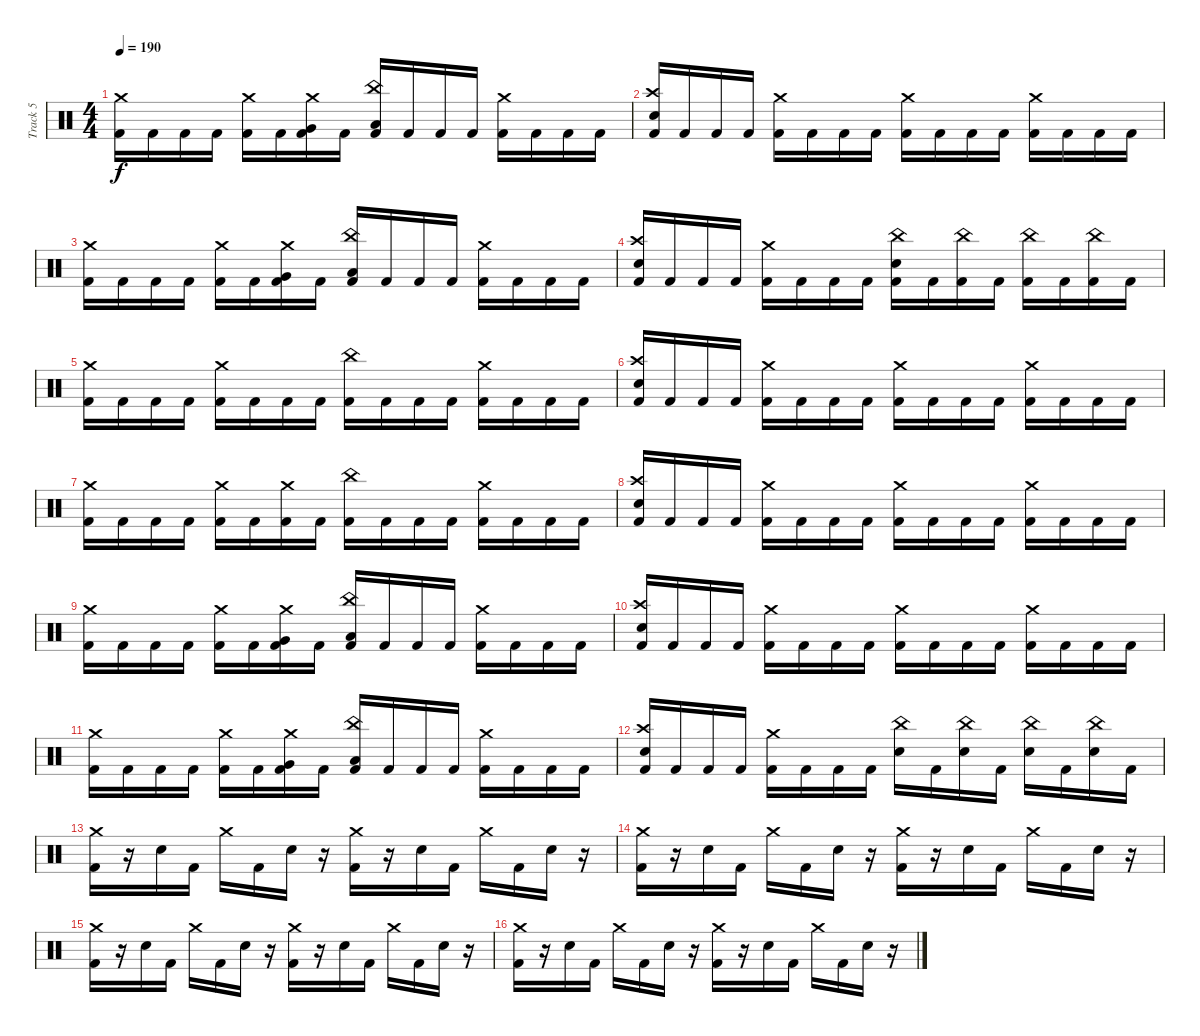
\track ("Track 5" "Track 5") {instrument percussion}
\staff {score}
\articulation defaults
\ts (4 4)
\tempo 190
\clef neutral
\ks c
("Crash medium (hit)" "Kick (hit) 2").16{dy f} "Kick (hit) 2".16 "Kick (hit) 2".16 "Kick (hit) 2".16 ("Crash medium (hit)" "Kick (hit) 2").16 "Kick (hit) 2".16 ("Crash medium (hit)" "Very Low Tom (hit)" "Kick (hit) 2").16 "Kick (hit) 2".16 ("China (hit)" "Low Floor Tom (hit)" "Kick (hit) 2").16 "Kick (hit) 2".16 "Kick (hit) 2".16 "Kick (hit) 2".16 ("Crash medium (hit)" "Kick (hit) 2").16 "Kick (hit) 2".16 "Kick (hit) 2".16 "Kick (hit) 2".16 |
("Crash high (hit)" "Electric Snare (hit)" "Kick (hit) 2").16 "Kick (hit) 2".16 "Kick (hit) 2".16 "Kick (hit) 2".16 ("Crash medium (hit)" "Kick (hit) 2").16 "Kick (hit) 2".16 "Kick (hit) 2".16 "Kick (hit) 2".16 ("Crash medium (hit)" "Kick (hit) 2").16 "Kick (hit) 2".16 "Kick (hit) 2".16 "Kick (hit) 2".16 ("Crash medium (hit)" "Kick (hit) 2").16 "Kick (hit) 2".16 "Kick (hit) 2".16 "Kick (hit) 2".16 |
("Crash medium (hit)" "Kick (hit) 2").16 "Kick (hit) 2".16 "Kick (hit) 2".16 "Kick (hit) 2".16 ("Crash medium (hit)" "Kick (hit) 2").16 "Kick (hit) 2".16 ("Crash medium (hit)" "Very Low Tom (hit)" "Kick (hit) 2").16 "Kick (hit) 2".16 ("China (hit)" "Low Floor Tom (hit)" "Kick (hit) 2").16 "Kick (hit) 2".16 "Kick (hit) 2".16 "Kick (hit) 2".16 ("Crash medium (hit)" "Kick (hit) 2").16 "Kick (hit) 2".16 "Kick (hit) 2".16 "Kick (hit) 2".16 |
("Crash high (hit)" "Electric Snare (hit)" "Kick (hit) 2").16 "Kick (hit) 2".16 "Kick (hit) 2".16 "Kick (hit) 2".16 ("Crash medium (hit)" "Kick (hit) 2").16 "Kick (hit) 2".16 "Kick (hit) 2".16 "Kick (hit) 2".16 ("China (hit)" "Electric Snare (hit)" "Kick (hit) 2").16 "Kick (hit) 2".16 ("China (hit)" "Kick (hit) 2").16 "Kick (hit) 2".16 ("China (hit)" "Kick (hit) 2").16 "Kick (hit) 2".16 ("China (hit)" "Kick (hit) 2").16 "Kick (hit) 2".16 |
("Crash medium (hit)" "Kick (hit) 2").16 "Kick (hit) 2".16 "Kick (hit) 2".16 "Kick (hit) 2".16 ("Crash medium (hit)" "Kick (hit) 2").16 "Kick (hit) 2".16 "Kick (hit) 2".16 "Kick (hit) 2".16 ("China (hit)" "Kick (hit) 2").16 "Kick (hit) 2".16 "Kick (hit) 2".16 "Kick (hit) 2".16 ("Crash medium (hit)" "Kick (hit) 2").16 "Kick (hit) 2".16 "Kick (hit) 2".16 "Kick (hit) 2".16 |
("Crash high (hit)" "Electric Snare (hit)" "Kick (hit) 2").16 "Kick (hit) 2".16 "Kick (hit) 2".16 "Kick (hit) 2".16 ("Crash medium (hit)" "Kick (hit) 2").16 "Kick (hit) 2".16 "Kick (hit) 2".16 "Kick (hit) 2".16 ("Crash medium (hit)" "Kick (hit) 2").16 "Kick (hit) 2".16 "Kick (hit) 2".16 "Kick (hit) 2".16 ("Crash medium (hit)" "Kick (hit) 2").16 "Kick (hit) 2".16 "Kick (hit) 2".16 "Kick (hit) 2".16 |
("Crash medium (hit)" "Kick (hit) 2").16 "Kick (hit) 2".16 "Kick (hit) 2".16 "Kick (hit) 2".16 ("Crash medium (hit)" "Kick (hit) 2").16 "Kick (hit) 2".16 ("Crash medium (hit)" "Kick (hit) 2").16 "Kick (hit) 2".16 ("China (hit)" "Kick (hit) 2").16 "Kick (hit) 2".16 "Kick (hit) 2".16 "Kick (hit) 2".16 ("Crash medium (hit)" "Kick (hit) 2").16 "Kick (hit) 2".16 "Kick (hit) 2".16 "Kick (hit) 2".16 |
("Crash high (hit)" "Electric Snare (hit)" "Kick (hit) 2").16 "Kick (hit) 2".16 "Kick (hit) 2".16 "Kick (hit) 2".16 ("Crash medium (hit)" "Kick (hit) 2").16 "Kick (hit) 2".16 "Kick (hit) 2".16 "Kick (hit) 2".16 ("Crash medium (hit)" "Kick (hit) 2").16 "Kick (hit) 2".16 "Kick (hit) 2".16 "Kick (hit) 2".16 ("Crash medium (hit)" "Kick (hit) 2").16 "Kick (hit) 2".16 "Kick (hit) 2".16 "Kick (hit) 2".16 |
("Crash medium (hit)" "Kick (hit) 2").16 "Kick (hit) 2".16 "Kick (hit) 2".16 "Kick (hit) 2".16 ("Crash medium (hit)" "Kick (hit) 2").16 "Kick (hit) 2".16 ("Crash medium (hit)" "Very Low Tom (hit)" "Kick (hit) 2").16 "Kick (hit) 2".16 ("China (hit)" "Low Floor Tom (hit)" "Kick (hit) 2").16 "Kick (hit) 2".16 "Kick (hit) 2".16 "Kick (hit) 2".16 ("Crash medium (hit)" "Kick (hit) 2").16 "Kick (hit) 2".16 "Kick (hit) 2".16 "Kick (hit) 2".16 |
("Crash high (hit)" "Electric Snare (hit)" "Kick (hit) 2").16 "Kick (hit) 2".16 "Kick (hit) 2".16 "Kick (hit) 2".16 ("Crash medium (hit)" "Kick (hit) 2").16 "Kick (hit) 2".16 "Kick (hit) 2".16 "Kick (hit) 2".16 ("Crash medium (hit)" "Kick (hit) 2").16 "Kick (hit) 2".16 "Kick (hit) 2".16 "Kick (hit) 2".16 ("Crash medium (hit)" "Kick (hit) 2").16 "Kick (hit) 2".16 "Kick (hit) 2".16 "Kick (hit) 2".16 |
("Crash medium (hit)" "Kick (hit) 2").16 "Kick (hit) 2".16 "Kick (hit) 2".16 "Kick (hit) 2".16 ("Crash medium (hit)" "Kick (hit) 2").16 "Kick (hit) 2".16 ("Crash medium (hit)" "Very Low Tom (hit)" "Kick (hit) 2").16 "Kick (hit) 2".16 ("China (hit)" "Low Floor Tom (hit)" "Kick (hit) 2").16 "Kick (hit) 2".16 "Kick (hit) 2".16 "Kick (hit) 2".16 ("Crash medium (hit)" "Kick (hit) 2").16 "Kick (hit) 2".16 "Kick (hit) 2".16 "Kick (hit) 2".16 |
("Crash high (hit)" "Electric Snare (hit)" "Kick (hit) 2").16 "Kick (hit) 2".16 "Kick (hit) 2".16 "Kick (hit) 2".16 ("Crash medium (hit)" "Kick (hit) 2").16 "Kick (hit) 2".16 "Kick (hit) 2".16 "Kick (hit) 2".16 ("China (hit)" "Electric Snare (hit)").16 "Kick (hit) 2".16 ("China (hit)" "Electric Snare (hit)").16 "Kick (hit) 2".16 ("China (hit)" "Electric Snare (hit)").16 "Kick (hit) 2".16 ("China (hit)" "Electric Snare (hit)").16 "Kick (hit) 2".16 |
("Crash medium (hit)" "Kick (hit) 2").16 r.16 "Electric Snare (hit)".16 "Kick (hit) 2".16 "Crash medium (hit)".16 "Kick (hit) 2".16 "Electric Snare (hit)".16 r.16 ("Crash medium (hit)" "Kick (hit) 2").16 r.16 "Electric Snare (hit)".16 "Kick (hit) 2".16 "Crash medium (hit)".16 "Kick (hit) 2".16 "Electric Snare (hit)".16 r.16 |
("Crash medium (hit)" "Kick (hit) 2").16 r.16 "Electric Snare (hit)".16 "Kick (hit) 2".16 "Crash medium (hit)".16 "Kick (hit) 2".16 "Electric Snare (hit)".16 r.16 ("Crash medium (hit)" "Kick (hit) 2").16 r.16 "Electric Snare (hit)".16 "Kick (hit) 2".16 "Crash medium (hit)".16 "Kick (hit) 2".16 "Electric Snare (hit)".16 r.16 |
("Crash medium (hit)" "Kick (hit) 2").16 r.16 "Electric Snare (hit)".16 "Kick (hit) 2".16 "Crash medium (hit)".16 "Kick (hit) 2".16 "Electric Snare (hit)".16 r.16 ("Crash medium (hit)" "Kick (hit) 2").16 r.16 "Electric Snare (hit)".16 "Kick (hit) 2".16 "Crash medium (hit)".16 "Kick (hit) 2".16 "Electric Snare (hit)".16 r.16 |
("Crash medium (hit)" "Kick (hit) 2").16 r.16 "Electric Snare (hit)".16 "Kick (hit) 2".16 "Crash medium (hit)".16 "Kick (hit) 2".16 "Electric Snare (hit)".16 r.16 ("Crash medium (hit)" "Kick (hit) 2").16 r.16 "Electric Snare (hit)".16 "Kick (hit) 2".16 "Crash medium (hit)".16 "Kick (hit) 2".16 "Electric Snare (hit)".16 r.16
